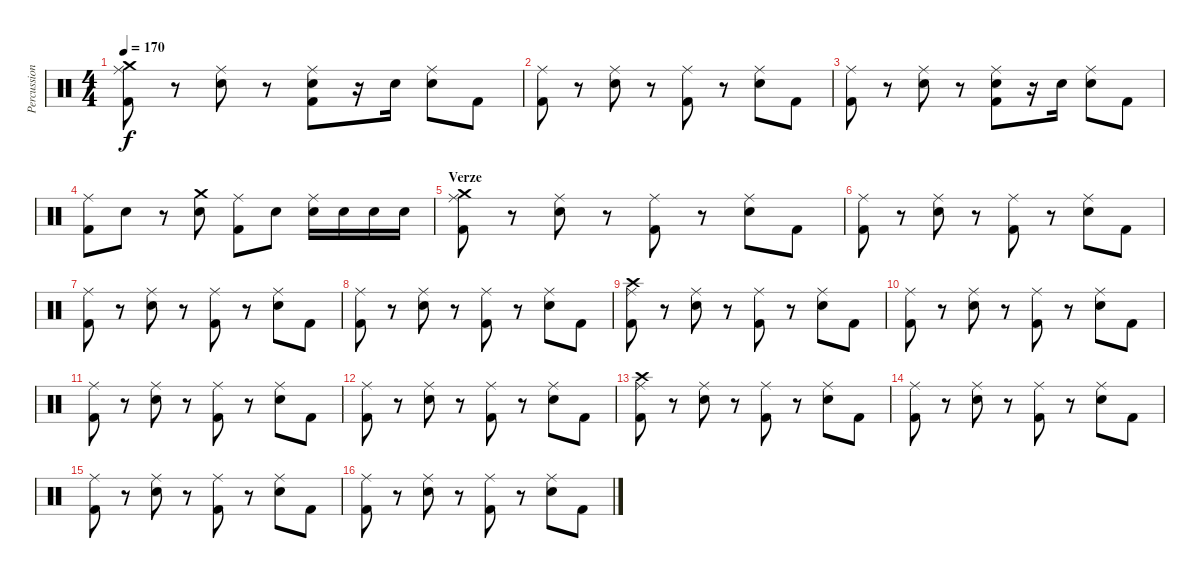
\track ("Percussion" "Percussion") {instrument percussion}
\staff {score}
\articulation defaults
\ts (4 4)
\tempo 170
\clef neutral
\ks c
("Ride (middle)" "Kick (hit) 2" "Crash medium (hit)").8{dy f} r.8 ("Ride (middle)" "Electric Snare (hit)").8 r.8 ("Ride (middle)" "Kick (hit) 2" "Electric Snare (hit)").8 r.16 "Electric Snare (hit)".16 ("Ride (middle)" "Electric Snare (hit)").8 "Kick (hit) 2".8 |
("Ride (middle)" "Kick (hit) 2").8 r.8 ("Ride (middle)" "Electric Snare (hit)").8 r.8 ("Ride (middle)" "Kick (hit) 2").8 r.8 ("Ride (middle)" "Electric Snare (hit)").8 "Kick (hit) 2".8 |
("Ride (middle)" "Kick (hit) 2").8 r.8 ("Ride (middle)" "Electric Snare (hit)").8 r.8 ("Ride (middle)" "Kick (hit) 2" "Electric Snare (hit)").8 r.16 "Electric Snare (hit)".16 ("Ride (middle)" "Electric Snare (hit)").8 "Kick (hit) 2".8 |
("Ride (middle)" "Kick (hit) 2").8 "Electric Snare (hit)".8 r.8 ("Crash medium (hit)" "Electric Snare (hit)").8 ("Ride (middle)" "Kick (hit) 2").8 "Electric Snare (hit)".8 ("Ride (middle)" "Electric Snare (hit)").16 "Electric Snare (hit)".16 "Electric Snare (hit)".16 "Electric Snare (hit)".16 |
\section ("" "Verze")
("Ride (middle)" "Kick (hit) 2" "Crash medium (hit)").8 r.8 ("Ride (middle)" "Electric Snare (hit)").8 r.8 ("Ride (middle)" "Kick (hit) 2").8 r.8 ("Ride (middle)" "Electric Snare (hit)").8 "Kick (hit) 2".8 |
("Ride (middle)" "Kick (hit) 2").8 r.8 ("Ride (middle)" "Electric Snare (hit)").8 r.8 ("Ride (middle)" "Kick (hit) 2").8 r.8 ("Ride (middle)" "Electric Snare (hit)").8 "Kick (hit) 2".8 |
("Ride (middle)" "Kick (hit) 2").8 r.8 ("Ride (middle)" "Electric Snare (hit)").8 r.8 ("Ride (middle)" "Kick (hit) 2").8 r.8 ("Ride (middle)" "Electric Snare (hit)").8 "Kick (hit) 2".8 |
("Ride (middle)" "Kick (hit) 2").8 r.8 ("Ride (middle)" "Electric Snare (hit)").8 r.8 ("Ride (middle)" "Kick (hit) 2").8 r.8 ("Ride (middle)" "Electric Snare (hit)").8 "Kick (hit) 2".8 |
("Ride (middle)" "Kick (hit) 2" "Crash high (hit)").8 r.8 ("Ride (middle)" "Electric Snare (hit)").8 r.8 ("Ride (middle)" "Kick (hit) 2").8 r.8 ("Ride (middle)" "Electric Snare (hit)").8 "Kick (hit) 2".8 |
("Ride (middle)" "Kick (hit) 2").8 r.8 ("Ride (middle)" "Electric Snare (hit)").8 r.8 ("Ride (middle)" "Kick (hit) 2").8 r.8 ("Ride (middle)" "Electric Snare (hit)").8 "Kick (hit) 2".8 |
("Ride (middle)" "Kick (hit) 2").8 r.8 ("Ride (middle)" "Electric Snare (hit)").8 r.8 ("Ride (middle)" "Kick (hit) 2").8 r.8 ("Ride (middle)" "Electric Snare (hit)").8 "Kick (hit) 2".8 |
("Ride (middle)" "Kick (hit) 2").8 r.8 ("Ride (middle)" "Electric Snare (hit)").8 r.8 ("Ride (middle)" "Kick (hit) 2").8 r.8 ("Ride (middle)" "Electric Snare (hit)").8 "Kick (hit) 2".8 |
("Ride (middle)" "Kick (hit) 2" "Crash high (hit)").8 r.8 ("Ride (middle)" "Electric Snare (hit)").8 r.8 ("Ride (middle)" "Kick (hit) 2").8 r.8 ("Ride (middle)" "Electric Snare (hit)").8 "Kick (hit) 2".8 |
("Ride (middle)" "Kick (hit) 2").8 r.8 ("Ride (middle)" "Electric Snare (hit)").8 r.8 ("Ride (middle)" "Kick (hit) 2").8 r.8 ("Ride (middle)" "Electric Snare (hit)").8 "Kick (hit) 2".8 |
("Ride (middle)" "Kick (hit) 2").8 r.8 ("Ride (middle)" "Electric Snare (hit)").8 r.8 ("Ride (middle)" "Kick (hit) 2").8 r.8 ("Ride (middle)" "Electric Snare (hit)").8 "Kick (hit) 2".8 |
("Ride (middle)" "Kick (hit) 2").8 r.8 ("Ride (middle)" "Electric Snare (hit)").8 r.8 ("Ride (middle)" "Kick (hit) 2").8 r.8 ("Ride (middle)" "Electric Snare (hit)").8 "Kick (hit) 2".8
